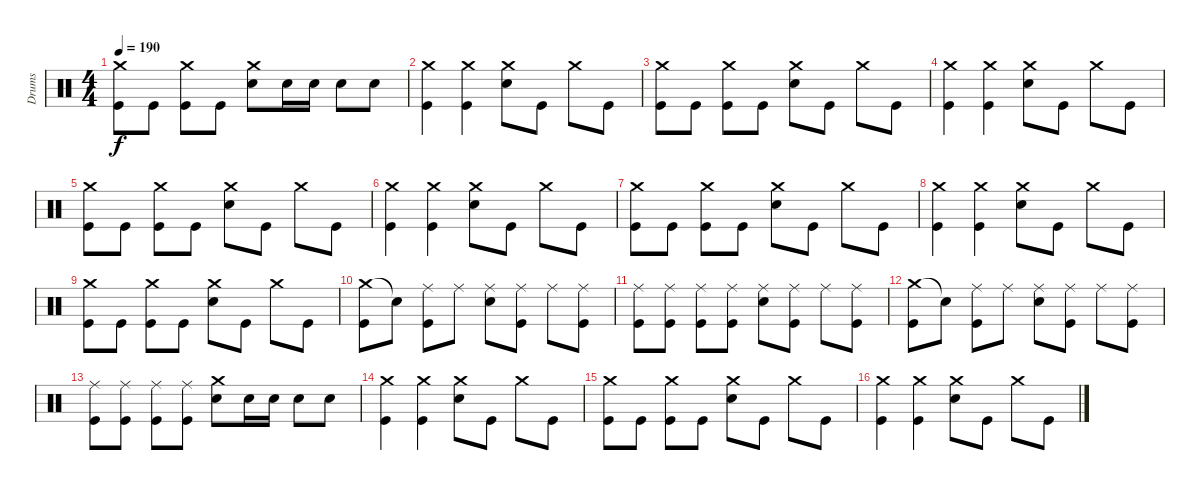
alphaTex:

\track ("Drums" "Drums") {instrument percussion}
\staff {score}
\articulation defaults
\ts (4 4)
\tempo 190
\clef neutral
\ks c
("Crash medium (hit)" "Kick (hit)").8{dy f} "Kick (hit)".8 ("Crash medium (hit)" "Kick (hit)").8 "Kick (hit)".8 ("Crash medium (hit)" "Electric Snare (hit)").8 "Electric Snare (hit)".16 "Electric Snare (hit)".16 "Electric Snare (hit)".8 "Electric Snare (hit)".8 |
("Crash medium (hit)" "Kick (hit)").4 ("Crash medium (hit)" "Kick (hit)").4 ("Crash medium (hit)" "Electric Snare (hit)").8 "Kick (hit)".8 "Crash medium (hit)".8 "Kick (hit)".8 |
("Crash medium (hit)" "Kick (hit)").8 "Kick (hit)".8 ("Crash medium (hit)" "Kick (hit)").8 "Kick (hit)".8 ("Crash medium (hit)" "Electric Snare (hit)").8 "Kick (hit)".8 "Crash medium (hit)".8 "Kick (hit)".8 |
("Crash medium (hit)" "Kick (hit)").4 ("Crash medium (hit)" "Kick (hit)").4 ("Crash medium (hit)" "Electric Snare (hit)").8 "Kick (hit)".8 "Crash medium (hit)".8 "Kick (hit)".8 |
("Crash medium (hit)" "Kick (hit)").8 "Kick (hit)".8 ("Crash medium (hit)" "Kick (hit)").8 "Kick (hit)".8 ("Crash medium (hit)" "Electric Snare (hit)").8 "Kick (hit)".8 "Crash medium (hit)".8 "Kick (hit)".8 |
("Crash medium (hit)" "Kick (hit)").4 ("Crash medium (hit)" "Kick (hit)").4 ("Crash medium (hit)" "Electric Snare (hit)").8 "Kick (hit)".8 "Crash medium (hit)".8 "Kick (hit)".8 |
("Crash medium (hit)" "Kick (hit)").8 "Kick (hit)".8 ("Crash medium (hit)" "Kick (hit)").8 "Kick (hit)".8 ("Crash medium (hit)" "Electric Snare (hit)").8 "Kick (hit)".8 "Crash medium (hit)".8 "Kick (hit)".8 |
("Crash medium (hit)" "Kick (hit)").4 ("Crash medium (hit)" "Kick (hit)").4 ("Crash medium (hit)" "Electric Snare (hit)").8 "Kick (hit)".8 "Crash medium (hit)".8 "Kick (hit)".8 |
("Crash medium (hit)" "Kick (hit)").8 "Kick (hit)".8 ("Crash medium (hit)" "Kick (hit)").8 "Kick (hit)".8 ("Crash medium (hit)" "Electric Snare (hit)").8 "Kick (hit)".8 "Crash medium (hit)".8 "Kick (hit)".8 |
("Crash medium (hit)" "Kick (hit)").8 "Snare (hit)"{t}.8 ("Ride (middle)" "Kick (hit)").8 "Ride (middle)".8 ("Ride (middle)" "Electric Snare (hit)").8 ("Ride (middle)" "Kick (hit)").8 "Ride (middle)".8 ("Ride (middle)" "Kick (hit)").8 |
("Ride (middle)" "Kick (hit)").8 ("Ride (middle)" "Kick (hit)").8 ("Ride (middle)" "Kick (hit)").8 ("Ride (middle)" "Kick (hit)").8 ("Ride (middle)" "Electric Snare (hit)").8 ("Ride (middle)" "Kick (hit)").8 "Ride (middle)".8 ("Ride (middle)" "Kick (hit)").8 |
("Crash medium (hit)" "Kick (hit)").8 "Snare (hit)"{t}.8 ("Ride (middle)" "Kick (hit)").8 "Ride (middle)".8 ("Ride (middle)" "Electric Snare (hit)").8 ("Ride (middle)" "Kick (hit)").8 "Ride (middle)".8 ("Ride (middle)" "Kick (hit)").8 |
("Ride (middle)" "Kick (hit)").8 ("Ride (middle)" "Kick (hit)").8 ("Ride (middle)" "Kick (hit)").8 ("Ride (middle)" "Kick (hit)").8 ("Crash medium (hit)" "Electric Snare (hit)").8 "Electric Snare (hit)".16 "Electric Snare (hit)".16 "Electric Snare (hit)".8 "Electric Snare (hit)".8 |
("Crash medium (hit)" "Kick (hit)").4 ("Crash medium (hit)" "Kick (hit)").4 ("Crash medium (hit)" "Electric Snare (hit)").8 "Kick (hit)".8 "Crash medium (hit)".8 "Kick (hit)".8 |
("Crash medium (hit)" "Kick (hit)").8 "Kick (hit)".8 ("Crash medium (hit)" "Kick (hit)").8 "Kick (hit)".8 ("Crash medium (hit)" "Electric Snare (hit)").8 "Kick (hit)".8 "Crash medium (hit)".8 "Kick (hit)".8 |
("Crash medium (hit)" "Kick (hit)").4 ("Crash medium (hit)" "Kick (hit)").4 ("Crash medium (hit)" "Electric Snare (hit)").8 "Kick (hit)".8 "Crash medium (hit)".8 "Kick (hit)".8
